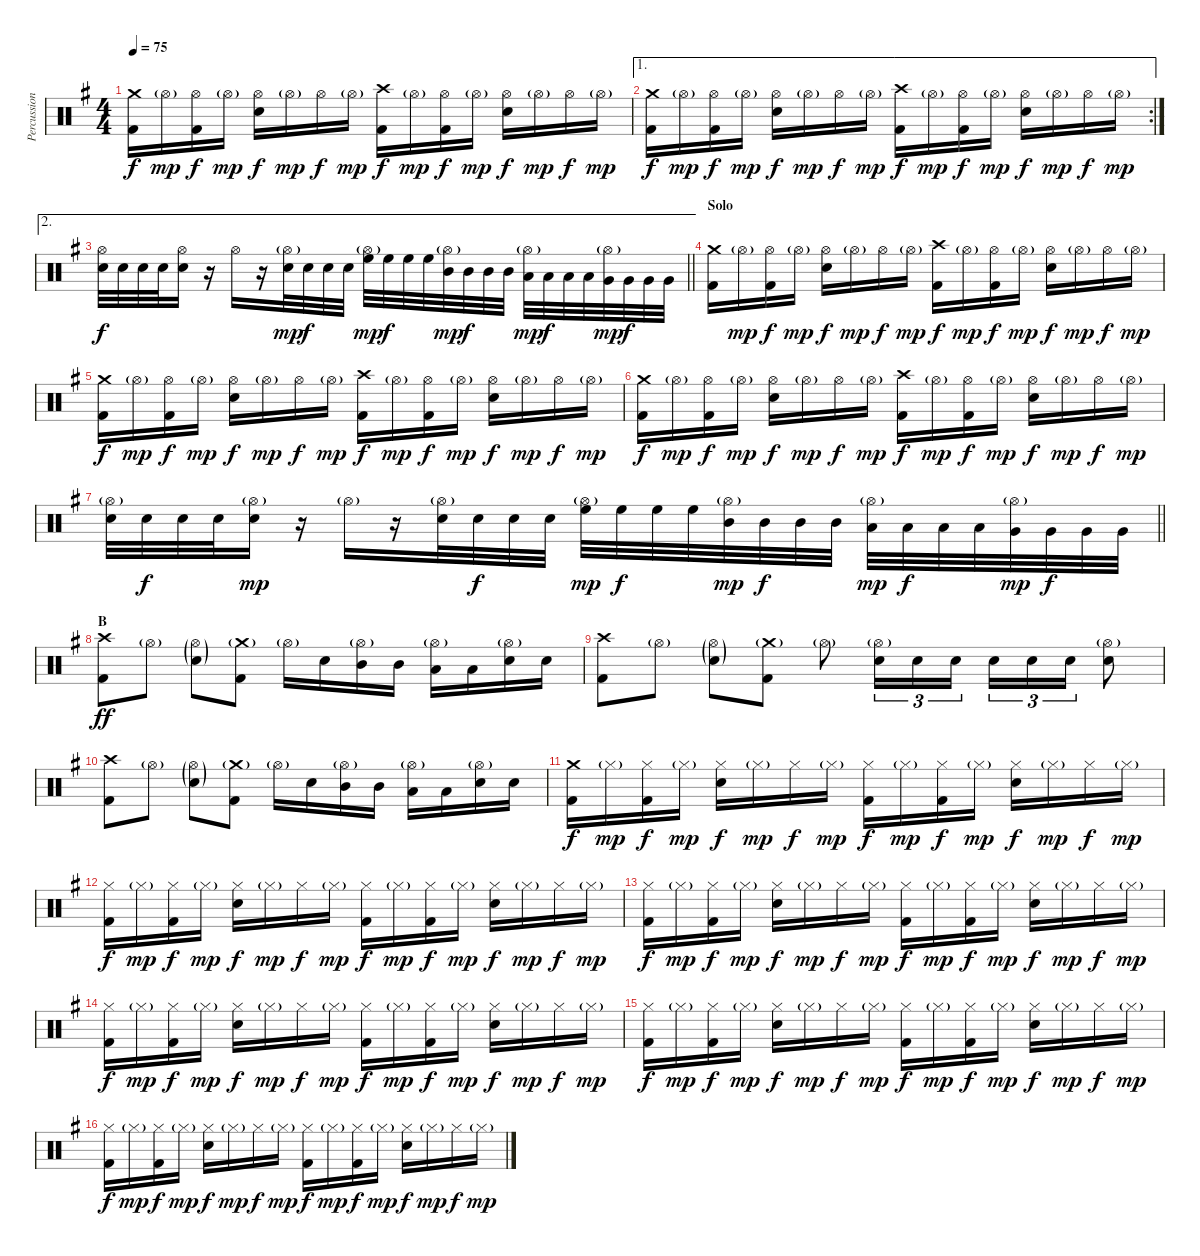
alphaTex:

\track ("Percussion" "Percussion") {instrument percussion}
\staff {score}
\articulation defaults
\ts (4 4)
\tempo 75
\clef neutral
\ks g
("Crash medium (hit)" "Kick (hit) 2").16{dy f} "Hi-Hat (open)"{g}.16{dy mp} ("Hi-Hat (open)" "Kick (hit) 2").16{dy f} "Hi-Hat (open)"{g}.16{dy mp} ("Hi-Hat (open)" "Electric Snare (hit)").16{dy f} "Hi-Hat (open)"{g}.16{dy mp} "Hi-Hat (open)".16{dy f} "Hi-Hat (open)"{g}.16{dy mp} ("Crash high (hit)" "Kick (hit) 2").16{dy f} "Hi-Hat (open)"{g}.16{dy mp} ("Hi-Hat (open)" "Kick (hit) 2").16{dy f} "Hi-Hat (open)"{g}.16{dy mp} ("Hi-Hat (open)" "Electric Snare (hit)").16{dy f} "Hi-Hat (open)"{g}.16{dy mp} "Hi-Hat (open)".16{dy f} "Hi-Hat (open)"{g}.16{dy mp} |
\ae 1
\rc 2
("Crash medium (hit)" "Kick (hit) 2").16{dy f} "Hi-Hat (open)"{g}.16{dy mp} ("Hi-Hat (open)" "Kick (hit) 2").16{dy f} "Hi-Hat (open)"{g}.16{dy mp} ("Hi-Hat (open)" "Electric Snare (hit)").16{dy f} "Hi-Hat (open)"{g}.16{dy mp} "Hi-Hat (open)".16{dy f} "Hi-Hat (open)"{g}.16{dy mp} ("Crash high (hit)" "Kick (hit) 2").16{dy f} "Hi-Hat (open)"{g}.16{dy mp} ("Hi-Hat (open)" "Kick (hit) 2").16{dy f} "Hi-Hat (open)"{g}.16{dy mp} ("Hi-Hat (open)" "Electric Snare (hit)").16{dy f} "Hi-Hat (open)"{g}.16{dy mp} "Hi-Hat (open)".16{dy f} "Hi-Hat (open)"{g}.16{dy mp} |
\ae 2
\barLineRight lightlight
("Electric Snare (hit)" "Hi-Hat (open)").32{dy f} "Electric Snare (hit)".32 "Electric Snare (hit)".32 "Electric Snare (hit)".32 ("Electric Snare (hit)" "Hi-Hat (open)").16 r.16 "Hi-Hat (open)".16 r.16 ("Electric Snare (hit)" "Hi-Hat (open)"{g}).32{dy mp} "Electric Snare (hit)".32{dy f} "Electric Snare (hit)".32 "Electric Snare (hit)".32 ("High Floor Tom (hit)" "Hi-Hat (open)"{g}).32{dy mp} "High Floor Tom (hit)".32{dy f} "High Floor Tom (hit)".32 "High Floor Tom (hit)".32 ("Mid Tom (hit)" "Hi-Hat (open)"{g}).32{dy mp} "Mid Tom (hit)".32{dy f} "Mid Tom (hit)".32 "Mid Tom (hit)".32 ("Low Tom (hit)" "Hi-Hat (open)"{g}).32{dy mp} "Low Tom (hit)".32{dy f} "Low Tom (hit)".32 "Low Tom (hit)".32 ("Very Low Tom (hit)" "Hi-Hat (open)"{g}).32{dy mp} "Very Low Tom (hit)".32{dy f} "Very Low Tom (hit)".32 "Very Low Tom (hit)".32 |
\section ("" "Solo")
("Crash medium (hit)" "Kick (hit) 2").16 "Hi-Hat (open)"{g}.16{dy mp} ("Hi-Hat (open)" "Kick (hit) 2").16{dy f} "Hi-Hat (open)"{g}.16{dy mp} ("Hi-Hat (open)" "Electric Snare (hit)").16{dy f} "Hi-Hat (open)"{g}.16{dy mp} "Hi-Hat (open)".16{dy f} "Hi-Hat (open)"{g}.16{dy mp} ("Crash high (hit)" "Kick (hit) 2").16{dy f} "Hi-Hat (open)"{g}.16{dy mp} ("Hi-Hat (open)" "Kick (hit) 2").16{dy f} "Hi-Hat (open)"{g}.16{dy mp} ("Hi-Hat (open)" "Electric Snare (hit)").16{dy f} "Hi-Hat (open)"{g}.16{dy mp} "Hi-Hat (open)".16{dy f} "Hi-Hat (open)"{g}.16{dy mp} |
("Crash medium (hit)" "Kick (hit) 2").16{dy f} "Hi-Hat (open)"{g}.16{dy mp} ("Hi-Hat (open)" "Kick (hit) 2").16{dy f} "Hi-Hat (open)"{g}.16{dy mp} ("Hi-Hat (open)" "Electric Snare (hit)").16{dy f} "Hi-Hat (open)"{g}.16{dy mp} "Hi-Hat (open)".16{dy f} "Hi-Hat (open)"{g}.16{dy mp} ("Crash high (hit)" "Kick (hit) 2").16{dy f} "Hi-Hat (open)"{g}.16{dy mp} ("Hi-Hat (open)" "Kick (hit) 2").16{dy f} "Hi-Hat (open)"{g}.16{dy mp} ("Hi-Hat (open)" "Electric Snare (hit)").16{dy f} "Hi-Hat (open)"{g}.16{dy mp} "Hi-Hat (open)".16{dy f} "Hi-Hat (open)"{g}.16{dy mp} |
("Crash medium (hit)" "Kick (hit) 2").16{dy f} "Hi-Hat (open)"{g}.16{dy mp} ("Hi-Hat (open)" "Kick (hit) 2").16{dy f} "Hi-Hat (open)"{g}.16{dy mp} ("Hi-Hat (open)" "Electric Snare (hit)").16{dy f} "Hi-Hat (open)"{g}.16{dy mp} "Hi-Hat (open)".16{dy f} "Hi-Hat (open)"{g}.16{dy mp} ("Crash high (hit)" "Kick (hit) 2").16{dy f} "Hi-Hat (open)"{g}.16{dy mp} ("Hi-Hat (open)" "Kick (hit) 2").16{dy f} "Hi-Hat (open)"{g}.16{dy mp} ("Hi-Hat (open)" "Electric Snare (hit)").16{dy f} "Hi-Hat (open)"{g}.16{dy mp} "Hi-Hat (open)".16{dy f} "Hi-Hat (open)"{g}.16{dy mp} |
\barLineRight lightlight
("Electric Snare (hit)" "Hi-Hat (open)"{g}).32 "Electric Snare (hit)".32{dy f} "Electric Snare (hit)".32 "Electric Snare (hit)".32 ("Electric Snare (hit)" "Hi-Hat (open)"{g}).16{dy mp} r.16 "Hi-Hat (open)"{g}.16 r.16 ("Electric Snare (hit)" "Hi-Hat (open)"{g}).32 "Electric Snare (hit)".32{dy f} "Electric Snare (hit)".32 "Electric Snare (hit)".32 ("High Floor Tom (hit)" "Hi-Hat (open)"{g}).32{dy mp} "High Floor Tom (hit)".32{dy f} "High Floor Tom (hit)".32 "High Floor Tom (hit)".32 ("Mid Tom (hit)" "Hi-Hat (open)"{g}).32{dy mp} "Mid Tom (hit)".32{dy f} "Mid Tom (hit)".32 "Mid Tom (hit)".32 ("Low Tom (hit)" "Hi-Hat (open)"{g}).32{dy mp} "Low Tom (hit)".32{dy f} "Low Tom (hit)".32 "Low Tom (hit)".32 ("Very Low Tom (hit)" "Hi-Hat (open)"{g}).32{dy mp} "Very Low Tom (hit)".32{dy f} "Very Low Tom (hit)".32 "Very Low Tom (hit)".32 |
\section ("" "B")
("Crash high (hit)" "Kick (hit) 2").8{dy ff} "Hi-Hat (open)"{g}.8 ("Hi-Hat (open)"{g} "Electric Snare (hit)"{g}).8 ("Crash medium (hit)"{g} "Kick (hit) 2").8 "Hi-Hat (open)"{g}.16 "Snare (hit) 2".16 ("Hi-Hat (open)"{g} "Mid Tom (hit)").16 "Mid Tom (hit)".16 ("Hi-Hat (open)"{g} "Low Tom (hit)").16 "Low Tom (hit)".16 ("Hi-Hat (open)"{g} "Snare (hit) 2").16 "Snare (hit) 2".16 |
("Crash high (hit)" "Kick (hit) 2").8 "Hi-Hat (open)"{g}.8 ("Hi-Hat (open)"{g} "Electric Snare (hit)"{g}).8 ("Crash medium (hit)"{g} "Kick (hit) 2").8 "Hi-Hat (open)"{g}.8 ("Hi-Hat (open)"{g} "Snare (hit) 2").16{tu (3 2)} "Snare (hit) 2".16{tu (3 2)} "Snare (hit) 2".16{tu (3 2)} "Snare (hit) 2".16{tu (3 2)} "Snare (hit) 2".16{tu (3 2)} "Snare (hit) 2".16{tu (3 2)} ("Hi-Hat (open)"{g} "Snare (hit) 2").8 |
("Crash high (hit)" "Kick (hit) 2").8 "Hi-Hat (open)"{g}.8 ("Hi-Hat (open)"{g} "Electric Snare (hit)"{g}).8 ("Crash medium (hit)"{g} "Kick (hit) 2").8 "Hi-Hat (open)"{g}.16 "Snare (hit) 2".16 ("Hi-Hat (open)"{g} "Mid Tom (hit)").16 "Mid Tom (hit)".16 ("Hi-Hat (open)"{g} "Low Tom (hit)").16 "Low Tom (hit)".16 ("Hi-Hat (open)"{g} "Snare (hit) 2").16 "Snare (hit) 2".16 |
("Crash medium (hit)" "Kick (hit) 2").16{dy f} "Hi-Hat (closed)"{g}.16{dy mp} ("Hi-Hat (closed)" "Kick (hit) 2").16{dy f} "Hi-Hat (closed)"{g}.16{dy mp} ("Hi-Hat (closed)" "Electric Snare (hit)").16{dy f} "Hi-Hat (closed)"{g}.16{dy mp} "Hi-Hat (closed)".16{dy f} "Hi-Hat (closed)"{g}.16{dy mp} ("Hi-Hat (closed)" "Kick (hit) 2").16{dy f} "Hi-Hat (closed)"{g}.16{dy mp} ("Hi-Hat (closed)" "Kick (hit) 2").16{dy f} "Hi-Hat (closed)"{g}.16{dy mp} ("Hi-Hat (closed)" "Electric Snare (hit)").16{dy f} "Hi-Hat (closed)"{g}.16{dy mp} "Hi-Hat (closed)".16{dy f} "Hi-Hat (closed)"{g}.16{dy mp} |
("Hi-Hat (closed)" "Kick (hit) 2").16{dy f} "Hi-Hat (closed)"{g}.16{dy mp} ("Hi-Hat (closed)" "Kick (hit) 2").16{dy f} "Hi-Hat (closed)"{g}.16{dy mp} ("Hi-Hat (closed)" "Electric Snare (hit)").16{dy f} "Hi-Hat (closed)"{g}.16{dy mp} "Hi-Hat (closed)".16{dy f} "Hi-Hat (closed)"{g}.16{dy mp} ("Hi-Hat (closed)" "Kick (hit) 2").16{dy f} "Hi-Hat (closed)"{g}.16{dy mp} ("Hi-Hat (closed)" "Kick (hit) 2").16{dy f} "Hi-Hat (closed)"{g}.16{dy mp} ("Hi-Hat (closed)" "Electric Snare (hit)").16{dy f} "Hi-Hat (closed)"{g}.16{dy mp} "Hi-Hat (closed)".16{dy f} "Hi-Hat (closed)"{g}.16{dy mp} |
("Hi-Hat (closed)" "Kick (hit) 2").16{dy f} "Hi-Hat (closed)"{g}.16{dy mp} ("Hi-Hat (closed)" "Kick (hit) 2").16{dy f} "Hi-Hat (closed)"{g}.16{dy mp} ("Hi-Hat (closed)" "Electric Snare (hit)").16{dy f} "Hi-Hat (closed)"{g}.16{dy mp} "Hi-Hat (closed)".16{dy f} "Hi-Hat (closed)"{g}.16{dy mp} ("Hi-Hat (closed)" "Kick (hit) 2").16{dy f} "Hi-Hat (closed)"{g}.16{dy mp} ("Hi-Hat (closed)" "Kick (hit) 2").16{dy f} "Hi-Hat (closed)"{g}.16{dy mp} ("Hi-Hat (closed)" "Electric Snare (hit)").16{dy f} "Hi-Hat (closed)"{g}.16{dy mp} "Hi-Hat (closed)".16{dy f} "Hi-Hat (closed)"{g}.16{dy mp} |
("Hi-Hat (closed)" "Kick (hit) 2").16{dy f} "Hi-Hat (closed)"{g}.16{dy mp} ("Hi-Hat (closed)" "Kick (hit) 2").16{dy f} "Hi-Hat (closed)"{g}.16{dy mp} ("Hi-Hat (closed)" "Electric Snare (hit)").16{dy f} "Hi-Hat (closed)"{g}.16{dy mp} "Hi-Hat (closed)".16{dy f} "Hi-Hat (closed)"{g}.16{dy mp} ("Hi-Hat (closed)" "Kick (hit) 2").16{dy f} "Hi-Hat (closed)"{g}.16{dy mp} ("Hi-Hat (closed)" "Kick (hit) 2").16{dy f} "Hi-Hat (closed)"{g}.16{dy mp} ("Hi-Hat (closed)" "Electric Snare (hit)").16{dy f} "Hi-Hat (closed)"{g}.16{dy mp} "Hi-Hat (closed)".16{dy f} "Hi-Hat (closed)"{g}.16{dy mp} |
("Hi-Hat (closed)" "Kick (hit) 2").16{dy f} "Hi-Hat (closed)"{g}.16{dy mp} ("Hi-Hat (closed)" "Kick (hit) 2").16{dy f} "Hi-Hat (closed)"{g}.16{dy mp} ("Hi-Hat (closed)" "Electric Snare (hit)").16{dy f} "Hi-Hat (closed)"{g}.16{dy mp} "Hi-Hat (closed)".16{dy f} "Hi-Hat (closed)"{g}.16{dy mp} ("Hi-Hat (closed)" "Kick (hit) 2").16{dy f} "Hi-Hat (closed)"{g}.16{dy mp} ("Hi-Hat (closed)" "Kick (hit) 2").16{dy f} "Hi-Hat (closed)"{g}.16{dy mp} ("Hi-Hat (closed)" "Electric Snare (hit)").16{dy f} "Hi-Hat (closed)"{g}.16{dy mp} "Hi-Hat (closed)".16{dy f} "Hi-Hat (closed)"{g}.16{dy mp} |
("Hi-Hat (closed)" "Kick (hit) 2").16{dy f} "Hi-Hat (closed)"{g}.16{dy mp} ("Hi-Hat (closed)" "Kick (hit) 2").16{dy f} "Hi-Hat (closed)"{g}.16{dy mp} ("Hi-Hat (closed)" "Electric Snare (hit)").16{dy f} "Hi-Hat (closed)"{g}.16{dy mp} "Hi-Hat (closed)".16{dy f} "Hi-Hat (closed)"{g}.16{dy mp} ("Hi-Hat (closed)" "Kick (hit) 2").16{dy f} "Hi-Hat (closed)"{g}.16{dy mp} ("Hi-Hat (closed)" "Kick (hit) 2").16{dy f} "Hi-Hat (closed)"{g}.16{dy mp} ("Hi-Hat (closed)" "Electric Snare (hit)").16{dy f} "Hi-Hat (closed)"{g}.16{dy mp} "Hi-Hat (closed)".16{dy f} "Hi-Hat (closed)"{g}.16{dy mp}
